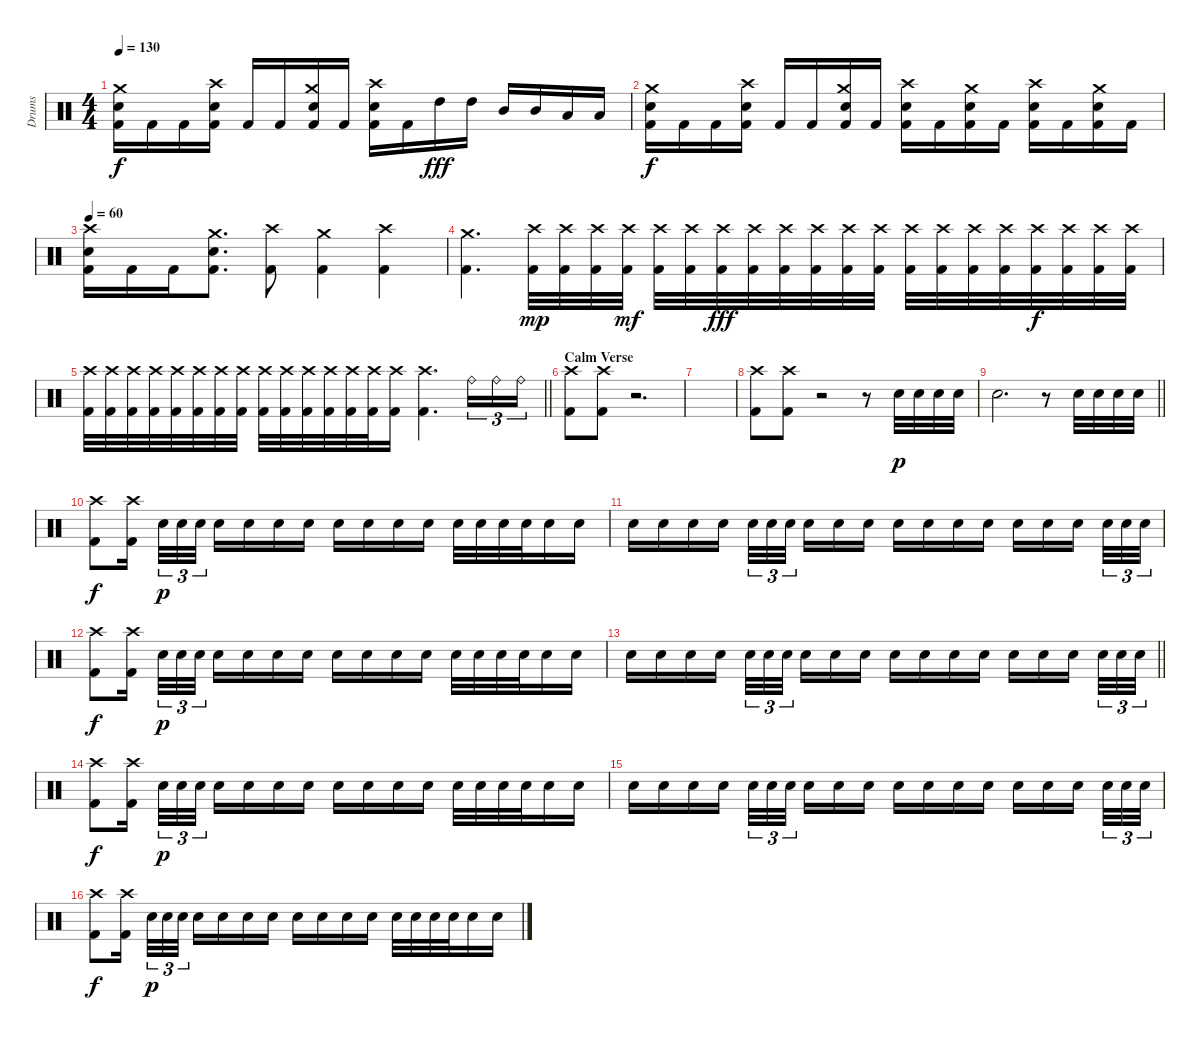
\track ("Drums" "Drums") {instrument percussion}
\staff {score}
\articulation defaults
\ts (4 4)
\tempo 130
\clef neutral
\ks c
("Snare (hit) 2" "Crash medium (hit)" "Kick (hit) 2").16{dy f} "Kick (hit) 2".16 "Kick (hit) 2".16 ("Snare (hit) 2" "Crash high (hit)" "Kick (hit) 2").16 "Kick (hit) 2".16 "Kick (hit) 2".16 ("Crash medium (hit)" "Snare (hit) 2" "Kick (hit) 2").16 "Kick (hit) 2".16 ("Crash high (hit)" "Snare (hit) 2" "Kick (hit) 2").16 "Kick (hit) 2".16 "High Tom (hit)".16{dy fff} "High Tom (hit)".16 "Mid Tom (hit)".16 "Mid Tom (hit)".16 "Low Tom (hit)".16 "Low Tom (hit)".16 |
("Snare (hit) 2" "Crash medium (hit)" "Kick (hit) 2").16{dy f} "Kick (hit) 2".16 "Kick (hit) 2".16 ("Snare (hit) 2" "Crash high (hit)" "Kick (hit) 2").16 "Kick (hit) 2".16 "Kick (hit) 2".16 ("Crash medium (hit)" "Snare (hit) 2" "Kick (hit) 2").16 "Kick (hit) 2".16 ("Crash high (hit)" "Snare (hit) 2" "Kick (hit) 2").16 "Kick (hit) 2".16 ("Crash medium (hit)" "Snare (hit) 2" "Kick (hit) 2").16 "Kick (hit) 2".16 ("Crash high (hit)" "Snare (hit) 2" "Kick (hit) 2").16 "Kick (hit) 2".16 ("Crash medium (hit)" "Snare (hit) 2" "Kick (hit) 2").16 "Kick (hit) 2".16 |
\tempo 60
("Snare (hit) 2" "Crash high (hit)" "Kick (hit) 2").16 "Kick (hit) 2".16 "Kick (hit) 2".16 ("Snare (hit) 2" "Crash medium (hit)" "Kick (hit) 2").8{d} ("Crash high (hit)" "Kick (hit) 2").8 ("Crash medium (hit)" "Kick (hit) 2").4 ("Crash high (hit)" "Kick (hit) 2").4 |
("Crash medium (hit)" "Kick (hit) 2").4{d} ("Kick (hit) 2" "Crash high (hit)").32{dy mp} ("Kick (hit) 2" "Crash high (hit)").32 ("Kick (hit) 2" "Crash high (hit)").32 ("Kick (hit) 2" "Crash high (hit)").32{dy mf} ("Kick (hit) 2" "Crash high (hit)").32 ("Kick (hit) 2" "Crash high (hit)").32 ("Kick (hit) 2" "Crash high (hit)").32{dy fff} ("Kick (hit) 2" "Crash high (hit)").32 ("Kick (hit) 2" "Crash high (hit)").32 ("Kick (hit) 2" "Crash high (hit)").32 ("Kick (hit) 2" "Crash high (hit)").32 ("Kick (hit) 2" "Crash high (hit)").32 ("Kick (hit) 2" "Crash high (hit)").32 ("Kick (hit) 2" "Crash high (hit)").32 ("Kick (hit) 2" "Crash high (hit)").32 ("Kick (hit) 2" "Crash high (hit)").32 ("Kick (hit) 2" "Crash high (hit)").32{dy f} ("Kick (hit) 2" "Crash high (hit)").32 ("Kick (hit) 2" "Crash high (hit)").32 ("Kick (hit) 2" "Crash high (hit)").32 |
\barLineRight lightlight
("Kick (hit) 2" "Crash high (hit)").32 ("Kick (hit) 2" "Crash high (hit)").32 ("Kick (hit) 2" "Crash high (hit)").32 ("Kick (hit) 2" "Crash high (hit)").32 ("Kick (hit) 2" "Crash high (hit)").32 ("Kick (hit) 2" "Crash high (hit)").32 ("Kick (hit) 2" "Crash high (hit)").32 ("Kick (hit) 2" "Crash high (hit)").32 ("Kick (hit) 2" "Crash high (hit)").32 ("Kick (hit) 2" "Crash high (hit)").32 ("Kick (hit) 2" "Crash high (hit)").32 ("Kick (hit) 2" "Crash high (hit)").32 ("Kick (hit) 2" "Crash high (hit)").32 ("Kick (hit) 2" "Crash high (hit)").32 ("Kick (hit) 2" "Crash high (hit)").16 ("Crash high (hit)" "Kick (hit) 2").4{d} "Ride (bell)".16{tu (3 2)} "Ride (bell)".16{tu (3 2)} "Ride (bell)".16{tu (3 2)} |
\section ("" "Calm Verse")
("Crash high (hit)" "Kick (hit) 2").8 ("Crash high (hit)" "Kick (hit) 2").8 r.2{d} |
|
("Crash high (hit)" "Kick (hit) 2").8 ("Crash high (hit)" "Kick (hit) 2").8 r.2 r.8 "Electric Snare (hit)".32{dy p} "Electric Snare (hit)".32 "Electric Snare (hit)".32 "Electric Snare (hit)".32 |
\barLineRight lightlight "Electric Snare (hit)".2{d}
r.8 "Electric Snare (hit)".32 "Electric Snare (hit)".32 "Electric Snare (hit)".32 "Electric Snare (hit)".32 |
("Crash high (hit)" "Kick (hit) 2").8{dy f} ("Crash high (hit)" "Kick (hit) 2").16{beam splitsecondary} "Electric Snare (hit)".32{tu (3 2) dy p} "Electric Snare (hit)".32{tu (3 2)} "Electric Snare (hit)".32{tu (3 2)} "Electric Snare (hit)".16 "Electric Snare (hit)".16 "Electric Snare (hit)".16 "Electric Snare (hit)".16 "Electric Snare (hit)".16 "Electric Snare (hit)".16 "Electric Snare (hit)".16 "Electric Snare (hit)".16 "Electric Snare (hit)".32 "Electric Snare (hit)".32 "Electric Snare (hit)".32 "Electric Snare (hit)".32 "Electric Snare (hit)".16 "Electric Snare (hit)".16 |
"Electric Snare (hit)".16 "Electric Snare (hit)".16 "Electric Snare (hit)".16 "Electric Snare (hit)".16 "Electric Snare (hit)".32{tu (3 2)} "Electric Snare (hit)".32{tu (3 2)} "Electric Snare (hit)".32{tu (3 2) beam splitsecondary} "Electric Snare (hit)".16 "Electric Snare (hit)".16 "Electric Snare (hit)".16 "Electric Snare (hit)".16 "Electric Snare (hit)".16 "Electric Snare (hit)".16 "Electric Snare (hit)".16 "Electric Snare (hit)".16 "Electric Snare (hit)".16 "Electric Snare (hit)".16{beam splitsecondary} "Electric Snare (hit)".32{tu (3 2)} "Electric Snare (hit)".32{tu (3 2)} "Electric Snare (hit)".32{tu (3 2)} |
("Crash high (hit)" "Kick (hit) 2").8{dy f} ("Crash high (hit)" "Kick (hit) 2").16{beam splitsecondary} "Electric Snare (hit)".32{tu (3 2) dy p} "Electric Snare (hit)".32{tu (3 2)} "Electric Snare (hit)".32{tu (3 2)} "Electric Snare (hit)".16 "Electric Snare (hit)".16 "Electric Snare (hit)".16 "Electric Snare (hit)".16 "Electric Snare (hit)".16 "Electric Snare (hit)".16 "Electric Snare (hit)".16 "Electric Snare (hit)".16 "Electric Snare (hit)".32 "Electric Snare (hit)".32 "Electric Snare (hit)".32 "Electric Snare (hit)".32 "Electric Snare (hit)".16 "Electric Snare (hit)".16 |
\barLineRight lightlight "Electric Snare (hit)".16 "Electric Snare (hit)".16 "Electric Snare (hit)".16 "Electric Snare (hit)".16 "Electric Snare (hit)".32{tu (3 2)} "Electric Snare (hit)".32{tu (3 2)} "Electric Snare (hit)".32{tu (3 2) beam splitsecondary} "Electric Snare (hit)".16 "Electric Snare (hit)".16 "Electric Snare (hit)".16 "Electric Snare (hit)".16 "Electric Snare (hit)".16 "Electric Snare (hit)".16 "Electric Snare (hit)".16 "Electric Snare (hit)".16 "Electric Snare (hit)".16 "Electric Snare (hit)".16{beam splitsecondary} "Electric Snare (hit)".32{tu (3 2)} "Electric Snare (hit)".32{tu (3 2)} "Electric Snare (hit)".32{tu (3 2)}
|
("Crash high (hit)" "Kick (hit) 2").8{dy f} ("Crash high (hit)" "Kick (hit) 2").16{beam splitsecondary} "Electric Snare (hit)".32{tu (3 2) dy p} "Electric Snare (hit)".32{tu (3 2)} "Electric Snare (hit)".32{tu (3 2)} "Electric Snare (hit)".16 "Electric Snare (hit)".16 "Electric Snare (hit)".16 "Electric Snare (hit)".16 "Electric Snare (hit)".16 "Electric Snare (hit)".16 "Electric Snare (hit)".16 "Electric Snare (hit)".16 "Electric Snare (hit)".32 "Electric Snare (hit)".32 "Electric Snare (hit)".32 "Electric Snare (hit)".32 "Electric Snare (hit)".16 "Electric Snare (hit)".16 |
"Electric Snare (hit)".16 "Electric Snare (hit)".16 "Electric Snare (hit)".16 "Electric Snare (hit)".16 "Electric Snare (hit)".32{tu (3 2)} "Electric Snare (hit)".32{tu (3 2)} "Electric Snare (hit)".32{tu (3 2) beam splitsecondary} "Electric Snare (hit)".16 "Electric Snare (hit)".16 "Electric Snare (hit)".16 "Electric Snare (hit)".16 "Electric Snare (hit)".16 "Electric Snare (hit)".16 "Electric Snare (hit)".16 "Electric Snare (hit)".16 "Electric Snare (hit)".16 "Electric Snare (hit)".16{beam splitsecondary} "Electric Snare (hit)".32{tu (3 2)} "Electric Snare (hit)".32{tu (3 2)} "Electric Snare (hit)".32{tu (3 2)} |
("Crash high (hit)" "Kick (hit) 2").8{dy f} ("Crash high (hit)" "Kick (hit) 2").16{beam splitsecondary} "Electric Snare (hit)".32{tu (3 2) dy p} "Electric Snare (hit)".32{tu (3 2)} "Electric Snare (hit)".32{tu (3 2)} "Electric Snare (hit)".16 "Electric Snare (hit)".16 "Electric Snare (hit)".16 "Electric Snare (hit)".16 "Electric Snare (hit)".16 "Electric Snare (hit)".16 "Electric Snare (hit)".16 "Electric Snare (hit)".16 "Electric Snare (hit)".32 "Electric Snare (hit)".32 "Electric Snare (hit)".32 "Electric Snare (hit)".32 "Electric Snare (hit)".16 "Electric Snare (hit)".16
